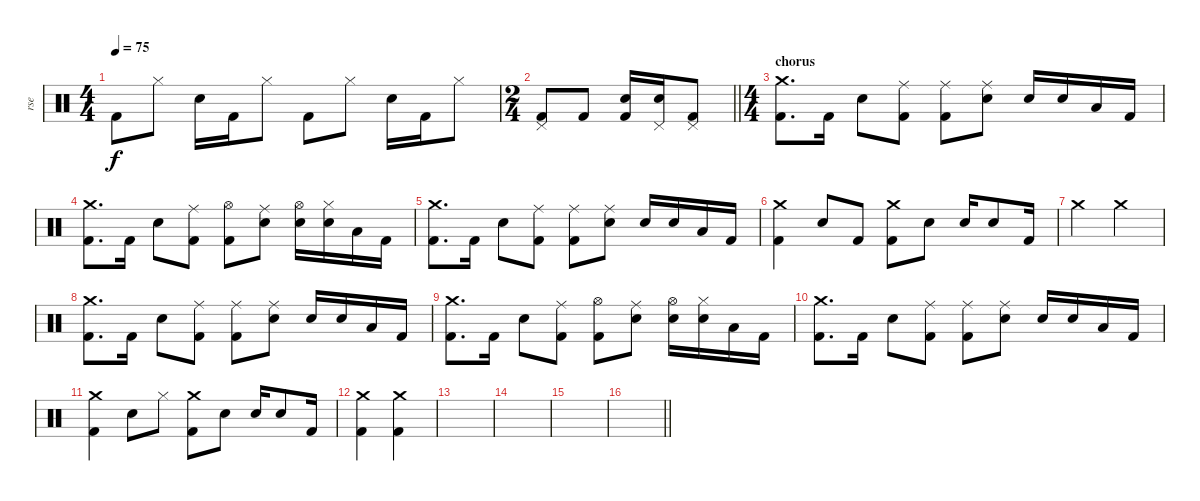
\track ("rse" "rse") {instrument percussion}
\staff {score}
\articulation defaults
\ts (4 4)
\tempo 75
\clef neutral
\ks c "Kick (hit) 2".8{dy f} "Hi-Hat (closed)".8 "Electric Snare (hit)".16 "Kick (hit) 2".16 "Hi-Hat (closed)".8 "Kick (hit) 2".8 "Hi-Hat (closed)".8 "Electric Snare (hit)".16 "Kick (hit) 2".16 "Hi-Hat (closed)".8
|
\ts (2 4)
\barLineRight lightlight
("Kick (hit) 2" "Pedal Hi-Hat (hit)").8 "Kick (hit) 2".8 ("Kick (hit) 2" "Electric Snare (hit)").16 ("Electric Snare (hit)" "Pedal Hi-Hat (hit)").16 ("Kick (hit) 2" "Pedal Hi-Hat (hit)").8 |
\ts (4 4)
\section ("" "chorus")
("Crash medium (hit)" "Kick (hit) 2").8{d} "Kick (hit) 2".16 "Electric Snare (hit)".8 ("Ride (middle)" "Kick (hit) 2").8 ("Ride (middle)" "Kick (hit) 2").8 ("Ride (middle)" "Electric Snare (hit)").8 "Electric Snare (hit)".16 "Electric Snare (hit)".16 "Low Floor Tom (hit)".16 "Kick (hit) 2".16 |
("Crash medium (hit)" "Kick (hit) 2").8{d} "Kick (hit) 2".16 "Electric Snare (hit)".8 ("Ride (middle)" "Kick (hit) 2").8 ("Hi-Hat (open)" "Kick (hit) 2").8 ("Ride (middle)" "Electric Snare (hit)").8 ("Hi-Hat (open)" "Electric Snare (hit)").16 ("Hi-Hat (closed)" "Electric Snare (hit)").16 "Low Floor Tom (hit)".16 "Kick (hit) 2".16 |
("Crash medium (hit)" "Kick (hit) 2").8{d} "Kick (hit) 2".16 "Electric Snare (hit)".8 ("Ride (middle)" "Kick (hit) 2").8 ("Ride (middle)" "Kick (hit) 2").8 ("Ride (middle)" "Electric Snare (hit)").8 "Electric Snare (hit)".16 "Electric Snare (hit)".16 "Low Floor Tom (hit)".16 "Kick (hit) 2".16 |
("Crash medium (hit)" "Kick (hit) 2").4 "Electric Snare (hit)".8 "Kick (hit) 2".8 ("Crash medium (hit)" "Kick (hit) 2").8 "Electric Snare (hit)".8 "Electric Snare (hit)".16 "Electric Snare (hit)".8 "Kick (hit) 2".16 |
"Crash medium (hit)".4 "Crash medium (hit)".4 |
("Crash medium (hit)" "Kick (hit) 2").8{d} "Kick (hit) 2".16 "Electric Snare (hit)".8 ("Ride (middle)" "Kick (hit) 2").8 ("Ride (middle)" "Kick (hit) 2").8 ("Ride (middle)" "Electric Snare (hit)").8 "Electric Snare (hit)".16 "Electric Snare (hit)".16 "Low Floor Tom (hit)".16 "Kick (hit) 2".16 |
("Crash medium (hit)" "Kick (hit) 2").8{d} "Kick (hit) 2".16 "Electric Snare (hit)".8 ("Ride (middle)" "Kick (hit) 2").8 ("Hi-Hat (open)" "Kick (hit) 2").8 ("Ride (middle)" "Electric Snare (hit)").8 ("Hi-Hat (open)" "Electric Snare (hit)").16 ("Hi-Hat (closed)" "Electric Snare (hit)").16 "Low Floor Tom (hit)".16 "Kick (hit) 2".16 |
("Crash medium (hit)" "Kick (hit) 2").8{d} "Kick (hit) 2".16 "Electric Snare (hit)".8 ("Ride (middle)" "Kick (hit) 2").8 ("Ride (middle)" "Kick (hit) 2").8 ("Ride (middle)" "Electric Snare (hit)").8 "Electric Snare (hit)".16 "Electric Snare (hit)".16 "Low Floor Tom (hit)".16 "Kick (hit) 2".16 |
("Crash medium (hit)" "Kick (hit) 2").4 "Electric Snare (hit)".8 "Hi-Hat (closed)".8 ("Crash medium (hit)" "Kick (hit) 2").8 "Electric Snare (hit)".8 "Electric Snare (hit)".16 "Electric Snare (hit)".8 "Kick (hit) 2".16 |
("Crash medium (hit)" "Kick (hit) 2").4 ("Crash medium (hit)" "Kick (hit) 2").4 |
|
|
|
\barLineRight lightlight
